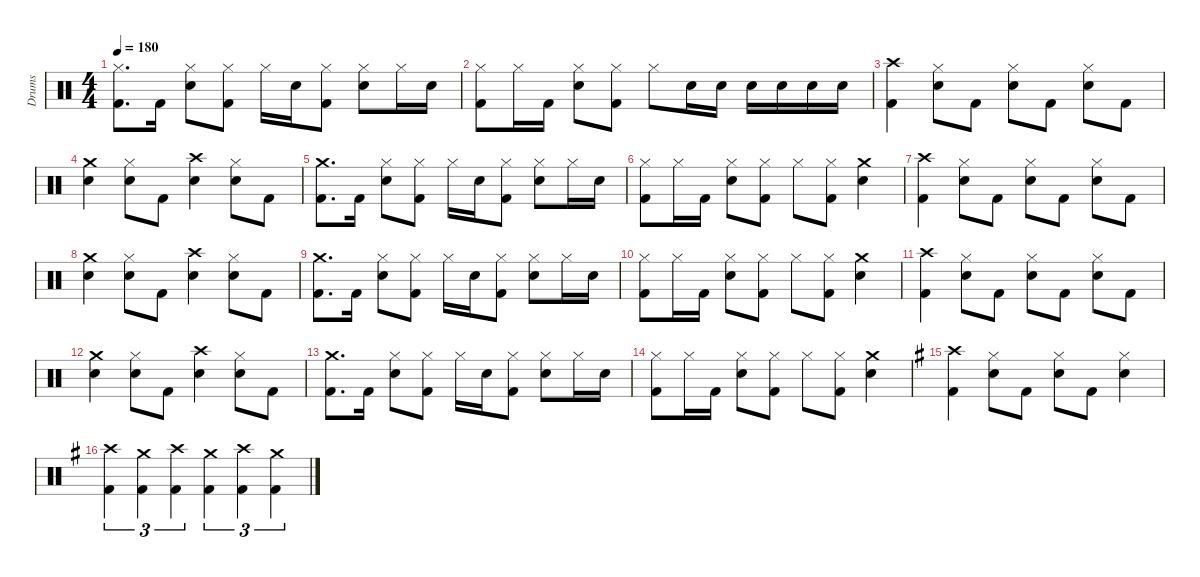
\defaultSystemsLayout 4
\hideDynamics
\bracketExtendMode nobrackets
\firstSystemTrackNameMode fullname
\otherSystemsTrackNameOrientation horizontal
\track ("Drums" "drm.") {instrument percussion}
\staff {score}
\articulation defaults
\ts (4 4)
\tempo 180
\clef neutral
\ks c
("Hi-Hat (closed)" "Kick (hit) 2").8{d dy f beam Down} "Kick (hit) 2".16{beam Down} ("Hi-Hat (closed)" "Snare (hit) 2").8{beam Down} ("Hi-Hat (closed)" "Kick (hit) 2").8{beam Down} "Hi-Hat (closed)".16{beam Down} "Snare (hit) 2".16{dy p beam Down} ("Hi-Hat (closed)" "Kick (hit) 2").8{dy f beam Down} ("Hi-Hat (closed)" "Snare (hit) 2").8{beam Down} "Hi-Hat (closed)".16{beam Down} "Snare (hit) 2".16{beam Down} |
("Hi-Hat (closed)" "Kick (hit) 2").8{dy ff beam Down} "Hi-Hat (closed)".16{beam Down} "Kick (hit) 2".16{dy f beam Down} ("Hi-Hat (closed)" "Snare (hit) 2").8{beam Down} ("Hi-Hat (closed)" "Kick (hit) 2").8{beam Down} "Hi-Hat (closed)".8{beam Down} "Snare (hit) 2".16{beam Down} "Snare (hit) 2".16{beam Down} "Snare (hit) 2".16{beam Down} "Snare (hit) 2".16{beam Down} "Snare (hit) 2".16{beam Down} "Snare (hit) 2".16{beam Down} |
("Crash high (hit)" "Kick (hit) 2").4{beam Down} ("Hi-Hat (closed)" "Snare (hit) 2").8{beam Down} "Kick (hit) 2".8{beam Down} ("Hi-Hat (closed)" "Snare (hit) 2").8{beam Down} "Kick (hit) 2".8{beam Down} ("Hi-Hat (closed)" "Snare (hit) 2").8{beam Down} "Kick (hit) 2".8{beam Down} |
("Crash medium (hit)" "Snare (hit) 2").4{beam Down} ("Hi-Hat (closed)" "Snare (hit) 2").8{beam Down} "Kick (hit) 2".8{beam Down} ("Crash high (hit)" "Snare (hit) 2").4{beam Down} ("Hi-Hat (closed)" "Snare (hit) 2").8{beam Down} "Kick (hit) 2".8{beam Down} |
("Crash medium (hit)" "Kick (hit) 2").8{d beam Down} "Kick (hit) 2".16{beam Down} ("Hi-Hat (closed)" "Snare (hit) 2").8{beam Down} ("Hi-Hat (closed)" "Kick (hit) 2").8{beam Down} "Hi-Hat (closed)".16{beam Down} "Snare (hit) 2".16{dy p beam Down} ("Hi-Hat (closed)" "Kick (hit) 2").8{dy f beam Down} ("Hi-Hat (closed)" "Snare (hit) 2").8{beam Down} "Hi-Hat (closed)".16{beam Down} "Snare (hit) 2".16{beam Down} |
("Hi-Hat (closed)" "Kick (hit) 2").8{dy ff beam Down} "Hi-Hat (closed)".16{beam Down} "Kick (hit) 2".16{dy f beam Down} ("Hi-Hat (closed)" "Snare (hit) 2").8{beam Down} ("Hi-Hat (closed)" "Kick (hit) 2").8{beam Down} "Hi-Hat (closed)".8{beam Down} ("Hi-Hat (closed)" "Kick (hit) 2").8{beam Down} ("Crash medium (hit)" "Snare (hit) 2").4{beam Down} |
("Crash high (hit)" "Kick (hit) 2").4{beam Down} ("Hi-Hat (closed)" "Snare (hit) 2").8{beam Down} "Kick (hit) 2".8{beam Down} ("Hi-Hat (closed)" "Snare (hit) 2").8{beam Down} "Kick (hit) 2".8{beam Down} ("Hi-Hat (closed)" "Snare (hit) 2").8{beam Down} "Kick (hit) 2".8{beam Down} |
("Crash medium (hit)" "Snare (hit) 2").4{beam Down} ("Hi-Hat (closed)" "Snare (hit) 2").8{beam Down} "Kick (hit) 2".8{beam Down} ("Crash high (hit)" "Snare (hit) 2").4{beam Down} ("Hi-Hat (closed)" "Snare (hit) 2").8{beam Down} "Kick (hit) 2".8{beam Down} |
("Crash medium (hit)" "Kick (hit) 2").8{d beam Down} "Kick (hit) 2".16{beam Down} ("Hi-Hat (closed)" "Snare (hit) 2").8{beam Down} ("Hi-Hat (closed)" "Kick (hit) 2").8{beam Down} "Hi-Hat (closed)".16{beam Down} "Snare (hit) 2".16{dy p beam Down} ("Hi-Hat (closed)" "Kick (hit) 2").8{dy f beam Down} ("Hi-Hat (closed)" "Snare (hit) 2").8{beam Down} "Hi-Hat (closed)".16{beam Down} "Snare (hit) 2".16{beam Down} |
("Hi-Hat (closed)" "Kick (hit) 2").8{dy ff beam Down} "Hi-Hat (closed)".16{beam Down} "Kick (hit) 2".16{dy f beam Down} ("Hi-Hat (closed)" "Snare (hit) 2").8{beam Down} ("Hi-Hat (closed)" "Kick (hit) 2").8{beam Down} "Hi-Hat (closed)".8{beam Down} ("Hi-Hat (closed)" "Kick (hit) 2").8{beam Down} ("Crash medium (hit)" "Snare (hit) 2").4{beam Down} |
("Crash high (hit)" "Kick (hit) 2").4{beam Down} ("Hi-Hat (closed)" "Snare (hit) 2").8{beam Down} "Kick (hit) 2".8{beam Down} ("Hi-Hat (closed)" "Snare (hit) 2").8{beam Down} "Kick (hit) 2".8{beam Down} ("Hi-Hat (closed)" "Snare (hit) 2").8{beam Down} "Kick (hit) 2".8{beam Down} |
("Crash medium (hit)" "Snare (hit) 2").4{beam Down} ("Hi-Hat (closed)" "Snare (hit) 2").8{beam Down} "Kick (hit) 2".8{beam Down} ("Crash high (hit)" "Snare (hit) 2").4{beam Down} ("Hi-Hat (closed)" "Snare (hit) 2").8{beam Down} "Kick (hit) 2".8{beam Down} |
("Crash medium (hit)" "Kick (hit) 2").8{d beam Down} "Kick (hit) 2".16{beam Down} ("Hi-Hat (closed)" "Snare (hit) 2").8{beam Down} ("Hi-Hat (closed)" "Kick (hit) 2").8{beam Down} "Hi-Hat (closed)".16{beam Down} "Snare (hit) 2".16{dy p beam Down} ("Hi-Hat (closed)" "Kick (hit) 2").8{dy f beam Down} ("Hi-Hat (closed)" "Snare (hit) 2").8{beam Down} "Hi-Hat (closed)".16{beam Down} "Snare (hit) 2".16{beam Down} |
("Hi-Hat (closed)" "Kick (hit) 2").8{dy ff beam Down} "Hi-Hat (closed)".16{beam Down} "Kick (hit) 2".16{dy f beam Down} ("Hi-Hat (closed)" "Snare (hit) 2").8{beam Down} ("Hi-Hat (closed)" "Kick (hit) 2").8{beam Down} "Hi-Hat (closed)".8{beam Down} ("Hi-Hat (closed)" "Kick (hit) 2").8{beam Down} ("Crash medium (hit)" "Snare (hit) 2").4{beam Down} |
\ks g
("Crash high (hit)"{acc forcenatural} "Kick (hit) 2"{acc forcenatural}).4{beam Down} ("Hi-Hat (closed)"{acc forcenatural} "Snare (hit) 2"{acc forcenatural}).8{beam Down} "Kick (hit) 2"{acc forcenatural}.8{beam Down} ("Hi-Hat (closed)"{acc forcenatural} "Snare (hit) 2"{acc forcenatural}).8{beam Down} "Kick (hit) 2"{acc forcenatural}.8{beam Down} ("Hi-Hat (closed)"{acc forcenatural} "Snare (hit) 2"{acc forcenatural}).4{beam Down} |
("Crash high (hit)"{acc forcenatural} "Kick (hit) 2"{acc forcenatural}).4{tu (3 2) beam Down} ("Crash medium (hit)"{acc forcenatural} "Kick (hit) 2"{acc forcenatural}).4{tu (3 2) beam Down} ("Crash high (hit)"{acc forcenatural} "Kick (hit) 2"{acc forcenatural}).4{tu (3 2) beam Down} ("Crash medium (hit)"{acc forcenatural} "Kick (hit) 2"{acc forcenatural}).4{tu (3 2) beam Down} ("Crash high (hit)"{acc forcenatural} "Kick (hit) 2"{acc forcenatural}).4{tu (3 2) beam Down} ("Crash medium (hit)"{acc forcenatural} "Kick (hit) 2"{acc forcenatural}).4{tu (3 2) beam Down}
